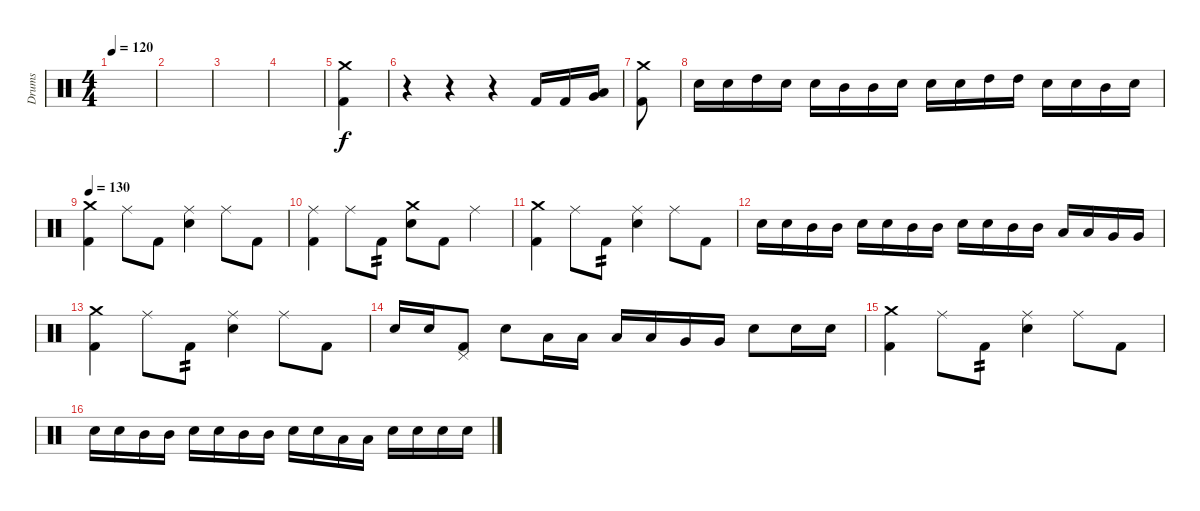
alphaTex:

\track ("Drums" "Drums") {instrument percussion}
\staff {score}
\articulation defaults
\ts (4 4)
\tempo 120
\clef neutral
\ks c
|
|
|
|
("Crash medium (hit)" "Kick (hit) 2").4 |
r.4 r.4 r.4 "Kick (hit) 2".16 "Kick (hit) 2".16 ("Low Floor Tom (hit)" "Very Low Tom (hit)").16 |
("Crash medium (hit)" "Kick (hit) 2").8 |
"Snare (hit) 2".16 "Snare (hit) 2".16 "High Tom (hit)".16 "Snare (hit) 2".16 "Snare (hit) 2".16 "Mid Tom (hit)".16 "Mid Tom (hit)".16 "Snare (hit) 2".16 "Snare (hit) 2".16 "Snare (hit) 2".16 "High Tom (hit)".16 "High Tom (hit)".16 "Snare (hit) 2".16 "Snare (hit) 2".16 "Mid Tom (hit)".16 "Snare (hit) 2".16 |
\tempo 130
("Crash medium (hit)" "Kick (hit) 2").4 "Ride (middle)".8 "Kick (hit) 2".8 ("Ride (middle)" "Snare (hit) 2").4 "Ride (middle)".8 "Kick (hit) 2".8 |
("Ride (middle)" "Kick (hit) 2").4 "Ride (middle)".8 "Kick (hit) 2".8{tp 2} ("Crash medium (hit)" "Snare (hit) 2").8 "Kick (hit) 2".8 "Ride (middle)".4 |
("Crash medium (hit)" "Kick (hit) 2").4 "Ride (middle)".8 "Kick (hit) 2".8{tp 2} ("Ride (middle)" "Snare (hit) 2").4 "Ride (middle)".8 "Kick (hit) 2".8 |
"Snare (hit) 2".16 "Snare (hit) 2".16 "Mid Tom (hit)".16 "Mid Tom (hit)".16 "Snare (hit) 2".16 "Snare (hit) 2".16 "Mid Tom (hit)".16 "Mid Tom (hit)".16 "Snare (hit) 2".16 "Snare (hit) 2".16 "Mid Tom (hit)".16 "Mid Tom (hit)".16 "Low Tom (hit)".16 "Low Tom (hit)".16 "Very Low Tom (hit)".16 "Very Low Tom (hit)".16 |
("Crash medium (hit)" "Kick (hit) 2").4 "Ride (middle)".8 "Kick (hit) 2".8{tp 2} ("Ride (middle)" "Snare (hit) 2").4 "Ride (middle)".8 "Kick (hit) 2".8 |
"Snare (hit) 2".16 "Snare (hit) 2".16 ("Pedal Hi-Hat (hit)" "Kick (hit) 2").8 "Snare (hit) 2".8 "Low Tom (hit)".16 "Low Tom (hit)".16 "Low Tom (hit)".16 "Low Tom (hit)".16 "Very Low Tom (hit)".16 "Very Low Tom (hit)".16 "Snare (hit) 2".8 "Snare (hit) 2".16 "Snare (hit) 2".16 |
("Crash medium (hit)" "Kick (hit) 2").4 "Ride (middle)".8 "Kick (hit) 2".8{tp 2} ("Ride (middle)" "Snare (hit) 2").4 "Ride (middle)".8 "Kick (hit) 2".8 |
"Snare (hit) 2".16 "Snare (hit) 2".16 "Mid Tom (hit)".16 "Mid Tom (hit)".16 "Snare (hit) 2".16 "Snare (hit) 2".16 "Mid Tom (hit)".16 "Mid Tom (hit)".16 "Snare (hit) 2".16 "Snare (hit) 2".16 "Low Tom (hit)".16 "Low Tom (hit)".16 "Snare (hit) 2".16 "Snare (hit) 2".16 "Snare (hit) 2".16 "Snare (hit) 2".16
